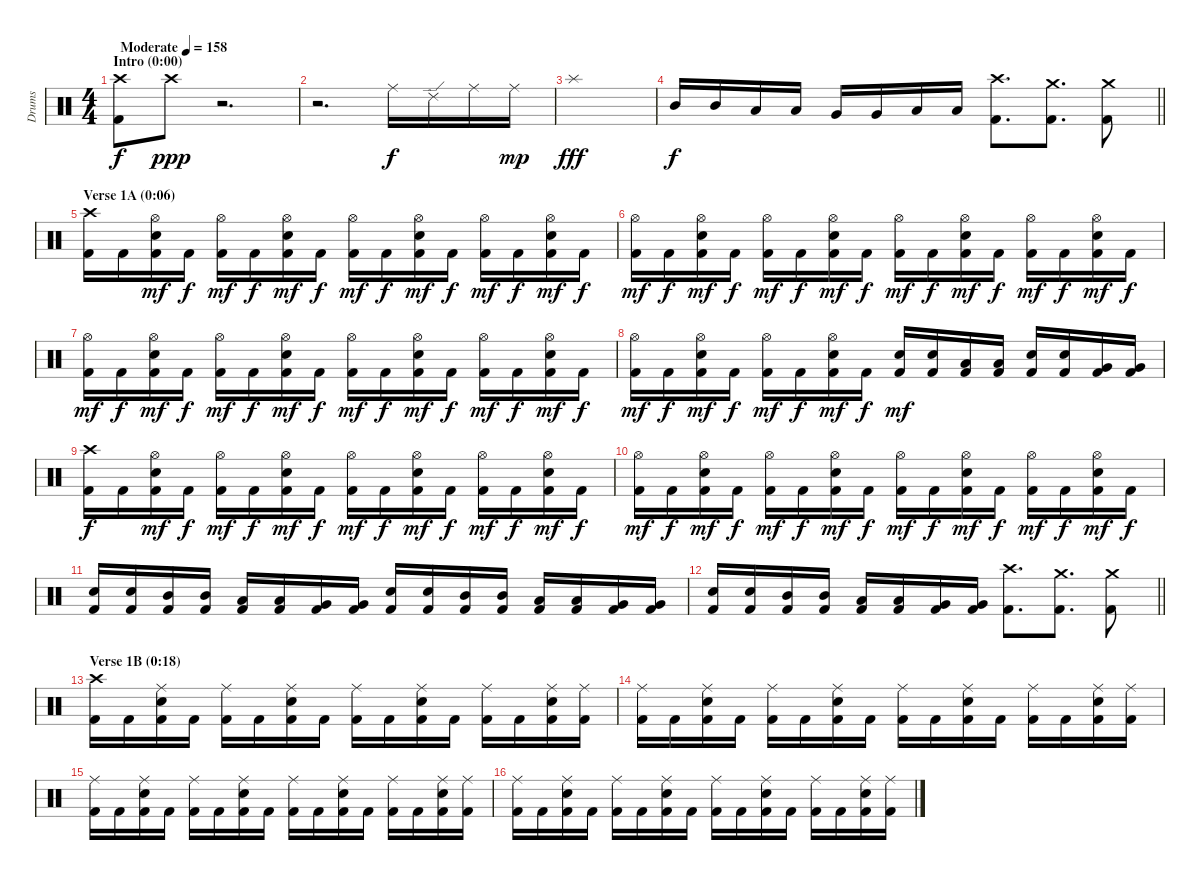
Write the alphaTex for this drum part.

\track ("Drums" "Drums") {instrument percussion}
\staff {score}
\articulation defaults
\ts (4 4)
\section ("" "Intro (0:00)")
\tempo (158 "Moderate")
\clef neutral
\ks c
("Crash high (hit)" "Kick (hit) 2").8{dy f} "Crash high (hit)".8{dy ppp} r.2{d} |
r.2{d} "Ride (middle)".16{dy f} "Ride (edge) 2".16 "Ride (middle)".16 "Ride (middle)".16{dy mp} |
"Splash (hit)".1{dy fff} |
\barLineRight lightlight "Mid Tom (hit)".16{dy f} "Mid Tom (hit)".16 "Low Tom (hit)".16 "Low Tom (hit)".16 "Very Low Tom (hit)".16 "Very Low Tom (hit)".16 "Low Floor Tom (hit)".16 "Low Floor Tom (hit)".16
("Crash high (hit)" "Kick (hit) 2").8{d} ("Crash medium (hit)" "Kick (hit) 2").8{d} ("Crash medium (hit)" "Kick (hit) 2").8 |
\section ("" "Verse 1A (0:06)")
("Crash high (hit)" "Kick (hit) 2").16 "Kick (hit) 2".16 ("Hi-Hat (open)" "Electric Snare (hit)" "Kick (hit) 2").16{dy mf} "Kick (hit) 2".16{dy f} ("Hi-Hat (open)" "Kick (hit) 2").16{dy mf} "Kick (hit) 2".16{dy f} ("Hi-Hat (open)" "Electric Snare (hit)" "Kick (hit) 2").16{dy mf} "Kick (hit) 2".16{dy f} ("Hi-Hat (open)" "Kick (hit) 2").16{dy mf} "Kick (hit) 2".16{dy f} ("Hi-Hat (open)" "Electric Snare (hit)" "Kick (hit) 2").16{dy mf} "Kick (hit) 2".16{dy f} ("Hi-Hat (open)" "Kick (hit) 2").16{dy mf} "Kick (hit) 2".16{dy f} ("Hi-Hat (open)" "Electric Snare (hit)" "Kick (hit) 2").16{dy mf} "Kick (hit) 2".16{dy f} |
("Hi-Hat (open)" "Kick (hit) 2").16{dy mf} "Kick (hit) 2".16{dy f} ("Hi-Hat (open)" "Electric Snare (hit)" "Kick (hit) 2").16{dy mf} "Kick (hit) 2".16{dy f} ("Hi-Hat (open)" "Kick (hit) 2").16{dy mf} "Kick (hit) 2".16{dy f} ("Hi-Hat (open)" "Electric Snare (hit)" "Kick (hit) 2").16{dy mf} "Kick (hit) 2".16{dy f} ("Hi-Hat (open)" "Kick (hit) 2").16{dy mf} "Kick (hit) 2".16{dy f} ("Hi-Hat (open)" "Electric Snare (hit)" "Kick (hit) 2").16{dy mf} "Kick (hit) 2".16{dy f} ("Hi-Hat (open)" "Kick (hit) 2").16{dy mf} "Kick (hit) 2".16{dy f} ("Hi-Hat (open)" "Electric Snare (hit)" "Kick (hit) 2").16{dy mf} "Kick (hit) 2".16{dy f} |
("Hi-Hat (open)" "Kick (hit) 2").16{dy mf} "Kick (hit) 2".16{dy f} ("Hi-Hat (open)" "Electric Snare (hit)" "Kick (hit) 2").16{dy mf} "Kick (hit) 2".16{dy f} ("Hi-Hat (open)" "Kick (hit) 2").16{dy mf} "Kick (hit) 2".16{dy f} ("Hi-Hat (open)" "Electric Snare (hit)" "Kick (hit) 2").16{dy mf} "Kick (hit) 2".16{dy f} ("Hi-Hat (open)" "Kick (hit) 2").16{dy mf} "Kick (hit) 2".16{dy f} ("Hi-Hat (open)" "Electric Snare (hit)" "Kick (hit) 2").16{dy mf} "Kick (hit) 2".16{dy f} ("Hi-Hat (open)" "Kick (hit) 2").16{dy mf} "Kick (hit) 2".16{dy f} ("Hi-Hat (open)" "Electric Snare (hit)" "Kick (hit) 2").16{dy mf} "Kick (hit) 2".16{dy f} |
("Hi-Hat (open)" "Kick (hit) 2").16{dy mf} "Kick (hit) 2".16{dy f} ("Hi-Hat (open)" "Electric Snare (hit)" "Kick (hit) 2").16{dy mf} "Kick (hit) 2".16{dy f} ("Hi-Hat (open)" "Kick (hit) 2").16{dy mf} "Kick (hit) 2".16{dy f} ("Hi-Hat (open)" "Electric Snare (hit)" "Kick (hit) 2").16{dy mf} "Kick (hit) 2".16{dy f} ("Electric Snare (hit)" "Kick (hit) 2").16{dy mf} ("Electric Snare (hit)" "Kick (hit) 2").16 ("Low Tom (hit)" "Kick (hit) 2").16 ("Low Tom (hit)" "Kick (hit) 2").16 ("Electric Snare (hit)" "Kick (hit) 2").16 ("Electric Snare (hit)" "Kick (hit) 2").16 ("Very Low Tom (hit)" "Kick (hit) 2").16 ("Very Low Tom (hit)" "Kick (hit) 2").16 |
("Crash high (hit)" "Kick (hit) 2").16{dy f} "Kick (hit) 2".16 ("Hi-Hat (open)" "Electric Snare (hit)" "Kick (hit) 2").16{dy mf} "Kick (hit) 2".16{dy f} ("Hi-Hat (open)" "Kick (hit) 2").16{dy mf} "Kick (hit) 2".16{dy f} ("Hi-Hat (open)" "Electric Snare (hit)" "Kick (hit) 2").16{dy mf} "Kick (hit) 2".16{dy f} ("Hi-Hat (open)" "Kick (hit) 2").16{dy mf} "Kick (hit) 2".16{dy f} ("Hi-Hat (open)" "Electric Snare (hit)" "Kick (hit) 2").16{dy mf} "Kick (hit) 2".16{dy f} ("Hi-Hat (open)" "Kick (hit) 2").16{dy mf} "Kick (hit) 2".16{dy f} ("Hi-Hat (open)" "Electric Snare (hit)" "Kick (hit) 2").16{dy mf} "Kick (hit) 2".16{dy f} |
("Hi-Hat (open)" "Kick (hit) 2").16{dy mf} "Kick (hit) 2".16{dy f} ("Hi-Hat (open)" "Electric Snare (hit)" "Kick (hit) 2").16{dy mf} "Kick (hit) 2".16{dy f} ("Hi-Hat (open)" "Kick (hit) 2").16{dy mf} "Kick (hit) 2".16{dy f} ("Hi-Hat (open)" "Electric Snare (hit)" "Kick (hit) 2").16{dy mf} "Kick (hit) 2".16{dy f} ("Hi-Hat (open)" "Kick (hit) 2").16{dy mf} "Kick (hit) 2".16{dy f} ("Hi-Hat (open)" "Electric Snare (hit)" "Kick (hit) 2").16{dy mf} "Kick (hit) 2".16{dy f} ("Hi-Hat (open)" "Kick (hit) 2").16{dy mf} "Kick (hit) 2".16{dy f} ("Hi-Hat (open)" "Electric Snare (hit)" "Kick (hit) 2").16{dy mf} "Kick (hit) 2".16{dy f} |
("Electric Snare (hit)" "Kick (hit) 2").16 ("Electric Snare (hit)" "Kick (hit) 2").16 ("Mid Tom (hit)" "Kick (hit) 2").16 ("Mid Tom (hit)" "Kick (hit) 2").16 ("Low Tom (hit)" "Kick (hit) 2").16 ("Low Tom (hit)" "Kick (hit) 2").16 ("Very Low Tom (hit)" "Kick (hit) 2").16 ("Very Low Tom (hit)" "Kick (hit) 2").16 ("Electric Snare (hit)" "Kick (hit) 2").16 ("Electric Snare (hit)" "Kick (hit) 2").16 ("Mid Tom (hit)" "Kick (hit) 2").16 ("Mid Tom (hit)" "Kick (hit) 2").16 ("Low Tom (hit)" "Kick (hit) 2").16 ("Low Tom (hit)" "Kick (hit) 2").16 ("Very Low Tom (hit)" "Kick (hit) 2").16 ("Very Low Tom (hit)" "Kick (hit) 2").16 |
\barLineRight lightlight
("Electric Snare (hit)" "Kick (hit) 2").16 ("Electric Snare (hit)" "Kick (hit) 2").16 ("Mid Tom (hit)" "Kick (hit) 2").16 ("Mid Tom (hit)" "Kick (hit) 2").16 ("Low Tom (hit)" "Kick (hit) 2").16 ("Low Tom (hit)" "Kick (hit) 2").16 ("Very Low Tom (hit)" "Kick (hit) 2").16 ("Very Low Tom (hit)" "Kick (hit) 2").16 ("Crash high (hit)" "Kick (hit) 2").8{d} ("Crash medium (hit)" "Kick (hit) 2").8{d} ("Crash medium (hit)" "Kick (hit) 2").8 |
\section ("" "Verse 1B (0:18)")
("Crash high (hit)" "Kick (hit) 2").16 "Kick (hit) 2".16 ("Ride (middle)" "Electric Snare (hit)" "Kick (hit) 2").16 "Kick (hit) 2".16 ("Ride (middle)" "Kick (hit) 2").16 "Kick (hit) 2".16 ("Ride (middle)" "Electric Snare (hit)" "Kick (hit) 2").16 "Kick (hit) 2".16 ("Ride (middle)" "Kick (hit) 2").16 "Kick (hit) 2".16 ("Ride (middle)" "Electric Snare (hit)" "Kick (hit) 2").16 "Kick (hit) 2".16 ("Ride (middle)" "Kick (hit) 2").16 "Kick (hit) 2".16 ("Ride (middle)" "Electric Snare (hit)" "Kick (hit) 2").16 ("Ride (middle)" "Kick (hit) 2").16 |
("Ride (middle)" "Kick (hit) 2").16 "Kick (hit) 2".16 ("Ride (middle)" "Electric Snare (hit)" "Kick (hit) 2").16 "Kick (hit) 2".16 ("Ride (middle)" "Kick (hit) 2").16 "Kick (hit) 2".16 ("Ride (middle)" "Electric Snare (hit)" "Kick (hit) 2").16 "Kick (hit) 2".16 ("Ride (middle)" "Kick (hit) 2").16 "Kick (hit) 2".16 ("Ride (middle)" "Electric Snare (hit)" "Kick (hit) 2").16 "Kick (hit) 2".16 ("Ride (middle)" "Kick (hit) 2").16 "Kick (hit) 2".16 ("Ride (middle)" "Electric Snare (hit)" "Kick (hit) 2").16 ("Ride (middle)" "Kick (hit) 2").16 |
("Ride (middle)" "Kick (hit) 2").16 "Kick (hit) 2".16 ("Ride (middle)" "Electric Snare (hit)" "Kick (hit) 2").16 "Kick (hit) 2".16 ("Ride (middle)" "Kick (hit) 2").16 "Kick (hit) 2".16 ("Ride (middle)" "Electric Snare (hit)" "Kick (hit) 2").16 "Kick (hit) 2".16 ("Ride (middle)" "Kick (hit) 2").16 "Kick (hit) 2".16 ("Ride (middle)" "Electric Snare (hit)" "Kick (hit) 2").16 "Kick (hit) 2".16 ("Ride (middle)" "Kick (hit) 2").16 "Kick (hit) 2".16 ("Ride (middle)" "Electric Snare (hit)" "Kick (hit) 2").16 ("Ride (middle)" "Kick (hit) 2").16 |
("Ride (middle)" "Kick (hit) 2").16 "Kick (hit) 2".16 ("Ride (middle)" "Electric Snare (hit)" "Kick (hit) 2").16 "Kick (hit) 2".16 ("Ride (middle)" "Kick (hit) 2").16 "Kick (hit) 2".16 ("Ride (middle)" "Electric Snare (hit)" "Kick (hit) 2").16 "Kick (hit) 2".16 ("Ride (middle)" "Kick (hit) 2").16 "Kick (hit) 2".16 ("Ride (middle)" "Electric Snare (hit)" "Kick (hit) 2").16 "Kick (hit) 2".16 ("Ride (middle)" "Kick (hit) 2").16 "Kick (hit) 2".16 ("Ride (middle)" "Electric Snare (hit)" "Kick (hit) 2").16 ("Ride (middle)" "Kick (hit) 2").16
